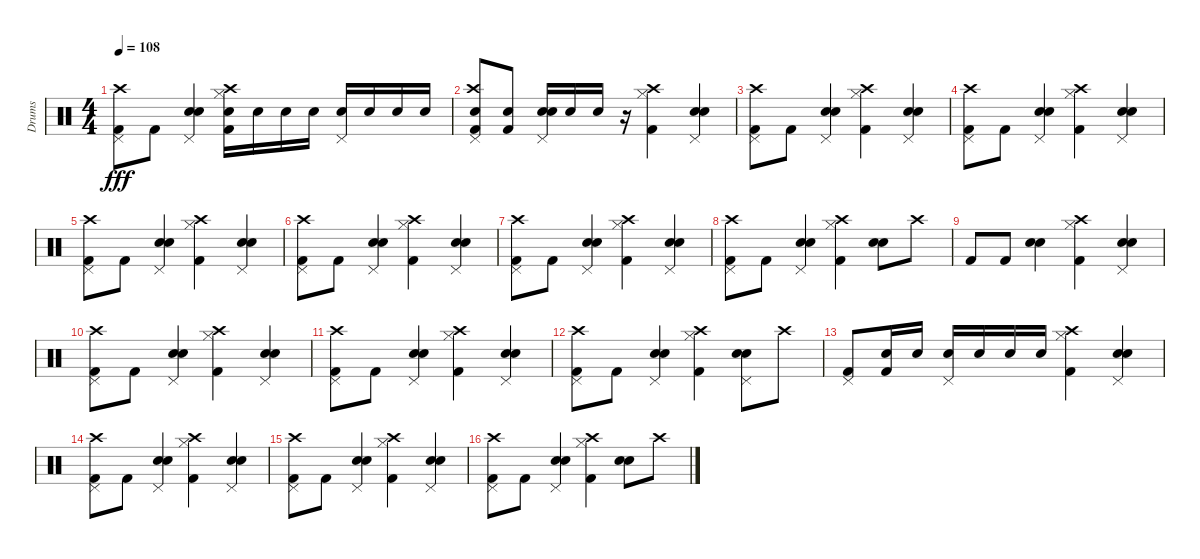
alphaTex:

\track ("Drums" "Drums") {instrument percussion}
\staff {score}
\articulation defaults
\ts (4 4)
\tempo 108
\clef neutral
\ks c
("Pedal Hi-Hat (hit)" "Kick (hit) 2" "Crash high (hit)").8{dy fff} "Kick (hit) 2".8 ("Electric Snare (hit)" "Pedal Hi-Hat (hit)" "Snare (hit) 2").4 ("Hi-Hat (closed)" "Kick (hit) 2" "Crash high (hit)" "Electric Snare (hit)").16 "Electric Snare (hit)".16 "Electric Snare (hit)".16 "Electric Snare (hit)".16 ("Pedal Hi-Hat (hit)" "Snare (hit) 2").16 "Snare (hit) 2".16 "Snare (hit) 2".16 "Snare (hit) 2".16 |
("Pedal Hi-Hat (hit)" "Kick (hit) 2" "Crash high (hit)" "Snare (hit) 2").8 ("Kick (hit) 2" "Snare (hit) 2").8 ("Electric Snare (hit)" "Pedal Hi-Hat (hit)" "Snare (hit) 2").16 "Snare (hit) 2".16 "Snare (hit) 2".16 r.16 ("Hi-Hat (closed)" "Kick (hit) 2" "Crash high (hit)").4 ("Electric Snare (hit)" "Pedal Hi-Hat (hit)" "Snare (hit) 2").4 |
("Pedal Hi-Hat (hit)" "Kick (hit) 2" "Crash high (hit)").8 "Kick (hit) 2".8 ("Electric Snare (hit)" "Pedal Hi-Hat (hit)" "Snare (hit) 2").4 ("Hi-Hat (closed)" "Kick (hit) 2" "Crash high (hit)").4 ("Electric Snare (hit)" "Pedal Hi-Hat (hit)" "Snare (hit) 2").4 |
("Pedal Hi-Hat (hit)" "Kick (hit) 2" "Crash high (hit)").8 "Kick (hit) 2".8 ("Electric Snare (hit)" "Pedal Hi-Hat (hit)" "Snare (hit) 2").4 ("Hi-Hat (closed)" "Kick (hit) 2" "Crash high (hit)").4 ("Electric Snare (hit)" "Pedal Hi-Hat (hit)" "Snare (hit) 2").4 |
("Pedal Hi-Hat (hit)" "Kick (hit) 2" "Crash high (hit)").8 "Kick (hit) 2".8 ("Electric Snare (hit)" "Pedal Hi-Hat (hit)" "Snare (hit) 2").4 ("Hi-Hat (closed)" "Kick (hit) 2" "Crash high (hit)").4 ("Electric Snare (hit)" "Pedal Hi-Hat (hit)" "Snare (hit) 2").4 |
("Pedal Hi-Hat (hit)" "Kick (hit) 2" "Crash high (hit)").8 "Kick (hit) 2".8 ("Electric Snare (hit)" "Pedal Hi-Hat (hit)" "Snare (hit) 2").4 ("Hi-Hat (closed)" "Kick (hit) 2" "Crash high (hit)").4 ("Electric Snare (hit)" "Pedal Hi-Hat (hit)" "Snare (hit) 2").4 |
("Pedal Hi-Hat (hit)" "Kick (hit) 2" "Crash high (hit)").8 "Kick (hit) 2".8 ("Electric Snare (hit)" "Pedal Hi-Hat (hit)" "Snare (hit) 2").4 ("Hi-Hat (closed)" "Kick (hit) 2" "Crash high (hit)").4 ("Electric Snare (hit)" "Pedal Hi-Hat (hit)" "Snare (hit) 2").4 |
("Pedal Hi-Hat (hit)" "Kick (hit) 2" "Crash high (hit)").8 "Kick (hit) 2".8 ("Electric Snare (hit)" "Pedal Hi-Hat (hit)" "Snare (hit) 2").4 ("Hi-Hat (closed)" "Kick (hit) 2" "Crash high (hit)").4 ("Electric Snare (hit)" "Snare (hit) 2").8 "Crash high (hit)".8 |
"Kick (hit) 2".8 "Kick (hit) 2".8 ("Electric Snare (hit)" "Snare (hit) 2").4 ("Hi-Hat (closed)" "Kick (hit) 2" "Crash high (hit)").4 ("Electric Snare (hit)" "Pedal Hi-Hat (hit)" "Snare (hit) 2").4 |
("Pedal Hi-Hat (hit)" "Kick (hit) 2" "Crash high (hit)").8 "Kick (hit) 2".8 ("Electric Snare (hit)" "Pedal Hi-Hat (hit)" "Snare (hit) 2").4 ("Hi-Hat (closed)" "Kick (hit) 2" "Crash high (hit)").4 ("Electric Snare (hit)" "Pedal Hi-Hat (hit)" "Snare (hit) 2").4 |
("Pedal Hi-Hat (hit)" "Kick (hit) 2" "Crash high (hit)").8 "Kick (hit) 2".8 ("Electric Snare (hit)" "Pedal Hi-Hat (hit)" "Snare (hit) 2").4 ("Hi-Hat (closed)" "Kick (hit) 2" "Crash high (hit)").4 ("Electric Snare (hit)" "Pedal Hi-Hat (hit)" "Snare (hit) 2").4 |
("Pedal Hi-Hat (hit)" "Kick (hit) 2" "Crash high (hit)").8 "Kick (hit) 2".8 ("Electric Snare (hit)" "Pedal Hi-Hat (hit)" "Snare (hit) 2").4 ("Hi-Hat (closed)" "Kick (hit) 2" "Crash high (hit)").4 ("Electric Snare (hit)" "Pedal Hi-Hat (hit)" "Snare (hit) 2").8 "Crash high (hit)".8 |
("Pedal Hi-Hat (hit)" "Kick (hit) 2").8 ("Kick (hit) 2" "Snare (hit) 2").16 "Snare (hit) 2".16 ("Pedal Hi-Hat (hit)" "Electric Snare (hit)").16 "Electric Snare (hit)".16 "Electric Snare (hit)".16 "Electric Snare (hit)".16 ("Hi-Hat (closed)" "Kick (hit) 2" "Crash high (hit)").4 ("Electric Snare (hit)" "Pedal Hi-Hat (hit)" "Snare (hit) 2").4 |
("Pedal Hi-Hat (hit)" "Kick (hit) 2" "Crash high (hit)").8 "Kick (hit) 2".8 ("Electric Snare (hit)" "Pedal Hi-Hat (hit)" "Snare (hit) 2").4 ("Hi-Hat (closed)" "Kick (hit) 2" "Crash high (hit)").4 ("Electric Snare (hit)" "Pedal Hi-Hat (hit)" "Snare (hit) 2").4 |
("Pedal Hi-Hat (hit)" "Kick (hit) 2" "Crash high (hit)").8 "Kick (hit) 2".8 ("Electric Snare (hit)" "Pedal Hi-Hat (hit)" "Snare (hit) 2").4 ("Hi-Hat (closed)" "Kick (hit) 2" "Crash high (hit)").4 ("Electric Snare (hit)" "Pedal Hi-Hat (hit)" "Snare (hit) 2").4 |
("Pedal Hi-Hat (hit)" "Kick (hit) 2" "Crash high (hit)").8 "Kick (hit) 2".8 ("Electric Snare (hit)" "Pedal Hi-Hat (hit)" "Snare (hit) 2").4 ("Hi-Hat (closed)" "Kick (hit) 2" "Crash high (hit)").4 ("Electric Snare (hit)" "Snare (hit) 2").8 "Crash high (hit)".8
